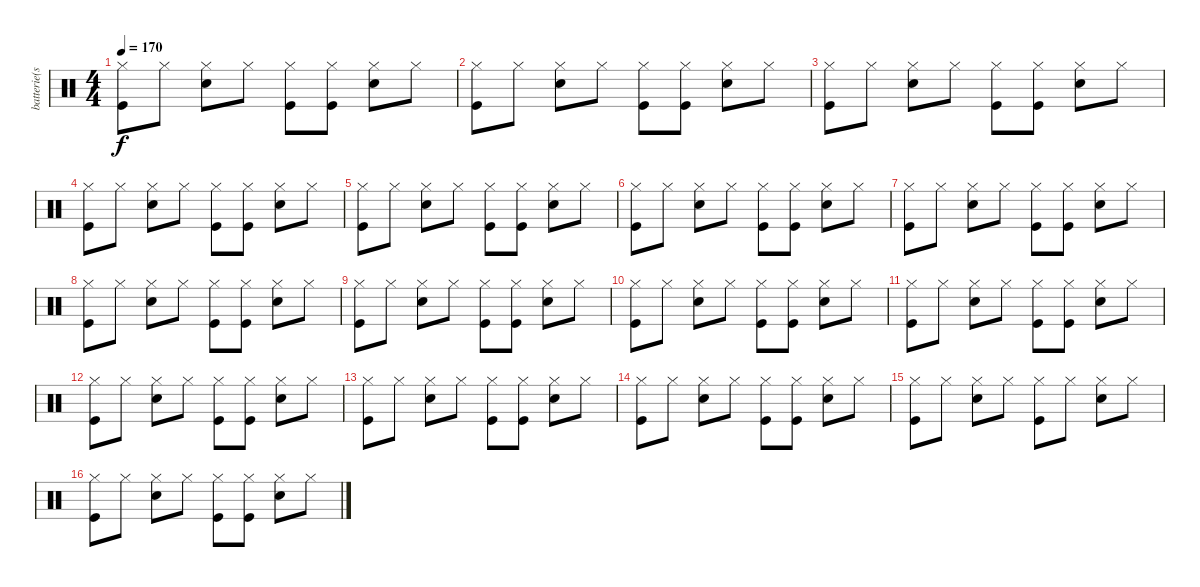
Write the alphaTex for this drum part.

\track ("batterie(steve)" "batterie(s") {instrument percussion}
\staff {score}
\articulation defaults
\ts (4 4)
\tempo 170
\clef neutral
\ks c
("Hi-Hat (closed)" "Kick (hit)").8{dy f} "Hi-Hat (closed)".8 ("Hi-Hat (closed)" "Snare (hit) 2").8 "Hi-Hat (closed)".8 ("Hi-Hat (closed)" "Kick (hit)").8 ("Hi-Hat (closed)" "Kick (hit)").8 ("Hi-Hat (closed)" "Snare (hit) 2").8 "Hi-Hat (closed)".8 |
("Hi-Hat (closed)" "Kick (hit)").8 "Hi-Hat (closed)".8 ("Hi-Hat (closed)" "Snare (hit) 2").8 "Hi-Hat (closed)".8 ("Hi-Hat (closed)" "Kick (hit)").8 ("Hi-Hat (closed)" "Kick (hit)").8 ("Hi-Hat (closed)" "Snare (hit) 2").8 "Hi-Hat (closed)".8 |
("Hi-Hat (closed)" "Kick (hit)").8 "Hi-Hat (closed)".8 ("Hi-Hat (closed)" "Snare (hit) 2").8 "Hi-Hat (closed)".8 ("Hi-Hat (closed)" "Kick (hit)").8 ("Hi-Hat (closed)" "Kick (hit)").8 ("Hi-Hat (closed)" "Snare (hit) 2").8 "Hi-Hat (closed)".8 |
("Hi-Hat (closed)" "Kick (hit)").8 "Hi-Hat (closed)".8 ("Hi-Hat (closed)" "Snare (hit) 2").8 "Hi-Hat (closed)".8 ("Hi-Hat (closed)" "Kick (hit)").8 ("Hi-Hat (closed)" "Kick (hit)").8 ("Hi-Hat (closed)" "Snare (hit) 2").8 "Hi-Hat (closed)".8 |
("Hi-Hat (closed)" "Kick (hit)").8 "Hi-Hat (closed)".8 ("Hi-Hat (closed)" "Snare (hit) 2").8 "Hi-Hat (closed)".8 ("Hi-Hat (closed)" "Kick (hit)").8 ("Hi-Hat (closed)" "Kick (hit)").8 ("Hi-Hat (closed)" "Snare (hit) 2").8 "Hi-Hat (closed)".8 |
("Hi-Hat (closed)" "Kick (hit)").8 "Hi-Hat (closed)".8 ("Hi-Hat (closed)" "Snare (hit) 2").8 "Hi-Hat (closed)".8 ("Hi-Hat (closed)" "Kick (hit)").8 ("Hi-Hat (closed)" "Kick (hit)").8 ("Hi-Hat (closed)" "Snare (hit) 2").8 "Hi-Hat (closed)".8 |
("Hi-Hat (closed)" "Kick (hit)").8 "Hi-Hat (closed)".8 ("Hi-Hat (closed)" "Snare (hit) 2").8 "Hi-Hat (closed)".8 ("Hi-Hat (closed)" "Kick (hit)").8 ("Hi-Hat (closed)" "Kick (hit)").8 ("Hi-Hat (closed)" "Snare (hit) 2").8 "Hi-Hat (closed)".8 |
("Hi-Hat (closed)" "Kick (hit)").8 "Hi-Hat (closed)".8 ("Hi-Hat (closed)" "Snare (hit) 2").8 "Hi-Hat (closed)".8 ("Hi-Hat (closed)" "Kick (hit)").8 ("Hi-Hat (closed)" "Kick (hit)").8 ("Hi-Hat (closed)" "Snare (hit) 2").8 "Hi-Hat (closed)".8 |
("Hi-Hat (closed)" "Kick (hit)").8 "Hi-Hat (closed)".8 ("Hi-Hat (closed)" "Snare (hit) 2").8 "Hi-Hat (closed)".8 ("Hi-Hat (closed)" "Kick (hit)").8 ("Hi-Hat (closed)" "Kick (hit)").8 ("Hi-Hat (closed)" "Snare (hit) 2").8 "Hi-Hat (closed)".8 |
("Hi-Hat (closed)" "Kick (hit)").8 "Hi-Hat (closed)".8 ("Hi-Hat (closed)" "Snare (hit) 2").8 "Hi-Hat (closed)".8 ("Hi-Hat (closed)" "Kick (hit)").8 ("Hi-Hat (closed)" "Kick (hit)").8 ("Hi-Hat (closed)" "Snare (hit) 2").8 "Hi-Hat (closed)".8 |
("Hi-Hat (closed)" "Kick (hit)").8 "Hi-Hat (closed)".8 ("Hi-Hat (closed)" "Snare (hit) 2").8 "Hi-Hat (closed)".8 ("Hi-Hat (closed)" "Kick (hit)").8 ("Hi-Hat (closed)" "Kick (hit)").8 ("Hi-Hat (closed)" "Snare (hit) 2").8 "Hi-Hat (closed)".8 |
("Hi-Hat (closed)" "Kick (hit)").8 "Hi-Hat (closed)".8 ("Hi-Hat (closed)" "Snare (hit) 2").8 "Hi-Hat (closed)".8 ("Hi-Hat (closed)" "Kick (hit)").8 ("Hi-Hat (closed)" "Kick (hit)").8 ("Hi-Hat (closed)" "Snare (hit) 2").8 "Hi-Hat (closed)".8 |
("Hi-Hat (closed)" "Kick (hit)").8 "Hi-Hat (closed)".8 ("Hi-Hat (closed)" "Snare (hit) 2").8 "Hi-Hat (closed)".8 ("Hi-Hat (closed)" "Kick (hit)").8 ("Hi-Hat (closed)" "Kick (hit)").8 ("Hi-Hat (closed)" "Snare (hit) 2").8 "Hi-Hat (closed)".8 |
("Hi-Hat (closed)" "Kick (hit)").8{volume 8} "Hi-Hat (closed)".8 ("Hi-Hat (closed)" "Snare (hit) 2").8 "Hi-Hat (closed)".8 ("Hi-Hat (closed)" "Kick (hit)").8 ("Hi-Hat (closed)" "Kick (hit)").8 ("Hi-Hat (closed)" "Snare (hit) 2").8 "Hi-Hat (closed)".8 |
("Hi-Hat (closed)" "Kick (hit)").8 "Hi-Hat (closed)".8 ("Hi-Hat (closed)" "Snare (hit) 2").8 "Hi-Hat (closed)".8 ("Hi-Hat (closed)" "Kick (hit)").8 "Hi-Hat (closed)".8 ("Hi-Hat (closed)" "Snare (hit) 2").8 "Hi-Hat (closed)".8 |
("Hi-Hat (closed)" "Kick (hit)").8 "Hi-Hat (closed)".8 ("Hi-Hat (closed)" "Snare (hit) 2").8 "Hi-Hat (closed)".8 ("Hi-Hat (closed)" "Kick (hit)").8 ("Hi-Hat (closed)" "Kick (hit)").8 ("Hi-Hat (closed)" "Snare (hit) 2").8 "Hi-Hat (closed)".8
